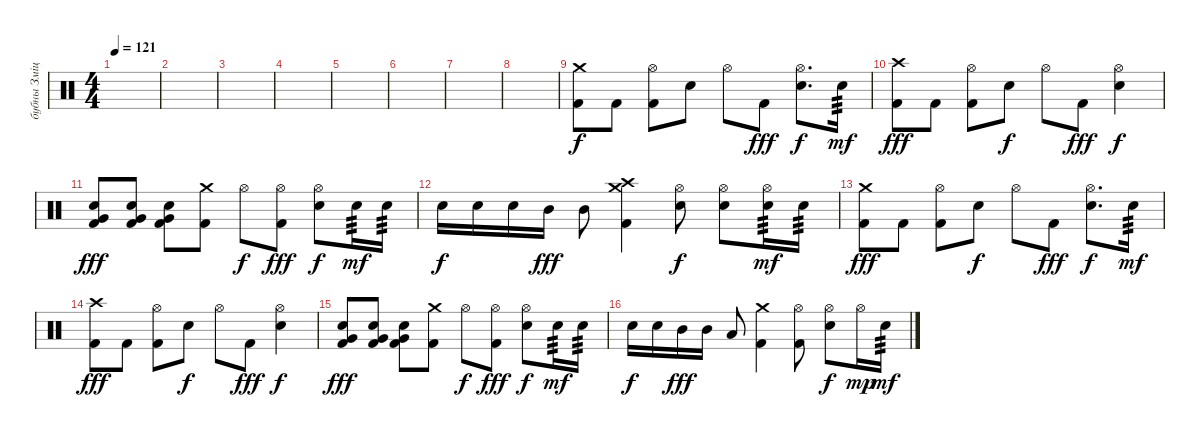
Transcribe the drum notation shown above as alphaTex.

\track ("бубны Змiцер " "бубны Змiц") {instrument percussion}
\staff {score}
\articulation defaults
\ts (4 4)
\tempo 121
\clef neutral
\ks c
|
|
|
|
|
|
|
|
("Crash medium (hit)" "Kick (hit) 2").8 "Kick (hit) 2".8 ("Hi-Hat (open)" "Kick (hit) 2").8 "Electric Snare (hit)".8{dy f} "Hi-Hat (open)".8 "Kick (hit) 2".8{dy fff} ("Hi-Hat (open)" "Electric Snare (hit)").8{d dy f} "Electric Snare (hit)".16{tp 3 dy mf} |
("Crash high (hit)" "Kick (hit) 2").8{dy fff} "Kick (hit) 2".8 ("Hi-Hat (open)" "Kick (hit) 2").8 "Electric Snare (hit)".8{dy f} "Hi-Hat (open)".8 "Kick (hit) 2".8{dy fff} ("Hi-Hat (open)" "Electric Snare (hit)").4{dy f} |
("Very Low Tom (hit)" "Electric Snare (hit)" "Kick (hit) 2").8{dy fff} ("Very Low Tom (hit)" "Electric Snare (hit)" "Kick (hit) 2").8 ("Very Low Tom (hit)" "Electric Snare (hit)" "Kick (hit) 2").8 ("Crash medium (hit)" "Kick (hit) 2").8 "Hi-Hat (open)".8{dy f} ("Hi-Hat (open)" "Kick (hit) 2").8{dy fff} ("Hi-Hat (open)" "Electric Snare (hit)").8{dy f} "Electric Snare (hit)".16{tp 3 dy mf} "Electric Snare (hit)".16{tp 3} |
"Electric Snare (hit)".16{dy f} "Electric Snare (hit)".16 "Electric Snare (hit)".16 "Mid Tom (hit)".16{dy fff} "Mid Tom (hit)".8 ("Crash medium (hit)" "Crash high (hit)" "Kick (hit) 2").4 ("Hi-Hat (open)" "Electric Snare (hit)").8{dy f} ("Hi-Hat (open)" "Electric Snare (hit)").8 ("Hi-Hat (open)" "Electric Snare (hit)").16{tp 3 dy mf} "Electric Snare (hit)".16{tp 3} |
("Crash medium (hit)" "Kick (hit) 2").8{dy fff} "Kick (hit) 2".8 ("Hi-Hat (open)" "Kick (hit) 2").8 "Electric Snare (hit)".8{dy f} "Hi-Hat (open)".8 "Kick (hit) 2".8{dy fff} ("Hi-Hat (open)" "Electric Snare (hit)").8{d dy f} "Electric Snare (hit)".16{tp 3 dy mf} |
("Crash high (hit)" "Kick (hit) 2").8{dy fff} "Kick (hit) 2".8 ("Hi-Hat (open)" "Kick (hit) 2").8 "Electric Snare (hit)".8{dy f} "Hi-Hat (open)".8 "Kick (hit) 2".8{dy fff} ("Hi-Hat (open)" "Electric Snare (hit)").4{dy f} |
("Very Low Tom (hit)" "Electric Snare (hit)" "Kick (hit) 2").8{dy fff} ("Very Low Tom (hit)" "Electric Snare (hit)" "Kick (hit) 2").8 ("Very Low Tom (hit)" "Electric Snare (hit)" "Kick (hit) 2").8 ("Crash medium (hit)" "Kick (hit) 2").8 "Hi-Hat (open)".8{dy f} ("Hi-Hat (open)" "Kick (hit) 2").8{dy fff} ("Hi-Hat (open)" "Electric Snare (hit)").8{dy f} "Electric Snare (hit)".16{tp 3 dy mf} "Electric Snare (hit)".16{tp 3} |
"Electric Snare (hit)".16{dy f} "Electric Snare (hit)".16 "Mid Tom (hit)".16{dy fff} "Mid Tom (hit)".16 "Low Tom (hit)".8 ("Crash medium (hit)" "Kick (hit) 2").4 ("Hi-Hat (open)" "Kick (hit) 2").8 ("Hi-Hat (open)" "Electric Snare (hit)").8{dy f} "Hi-Hat (open)".16{dy mp} "Electric Snare (hit)".16{tp 3 dy mf}
